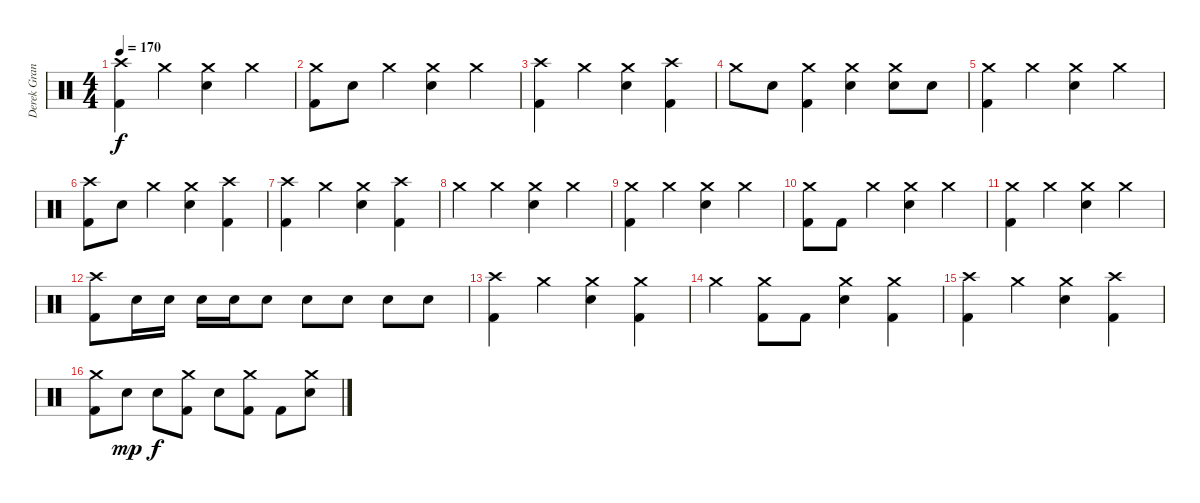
\track ("Derek Grant" "Derek Gran") {instrument percussion}
\staff {score}
\articulation defaults
\ts (4 4)
\tempo 170
\clef neutral
\ks c
("Crash high (hit)" "Kick (hit) 2").4{dy f} "Crash medium (hit)".4 ("Crash medium (hit)" "Snare (hit) 2").4 "Crash medium (hit)".4 |
("Crash medium (hit)" "Kick (hit) 2").8 "Snare (hit) 2".8 "Crash medium (hit)".4 ("Crash medium (hit)" "Snare (hit) 2").4 "Crash medium (hit)".4 |
("Crash high (hit)" "Kick (hit) 2").4 "Crash medium (hit)".4 ("Crash medium (hit)" "Snare (hit) 2").4 ("Crash high (hit)" "Kick (hit) 2").4 |
"Crash medium (hit)".8 "Snare (hit) 2".8 ("Crash medium (hit)" "Kick (hit) 2").4 ("Crash medium (hit)" "Snare (hit) 2").4 ("Crash medium (hit)" "Snare (hit) 2").8 "Snare (hit) 2".8 |
("Crash medium (hit)" "Kick (hit) 2").4 "Crash medium (hit)".4 ("Crash medium (hit)" "Snare (hit) 2").4 "Crash medium (hit)".4 |
("Crash high (hit)" "Kick (hit) 2").8 "Snare (hit) 2".8 "Crash medium (hit)".4 ("Crash medium (hit)" "Snare (hit) 2").4 ("Crash high (hit)" "Kick (hit) 2").4 |
("Crash high (hit)" "Kick (hit) 2").4 "Crash medium (hit)".4 ("Crash medium (hit)" "Snare (hit) 2").4 ("Crash high (hit)" "Kick (hit) 2").4 |
"Crash medium (hit)".4 "Crash medium (hit)".4 ("Crash medium (hit)" "Snare (hit) 2").4 "Crash medium (hit)".4 |
("Crash medium (hit)" "Kick (hit) 2").4 "Crash medium (hit)".4 ("Crash medium (hit)" "Snare (hit) 2").4 "Crash medium (hit)".4 |
("Crash medium (hit)" "Kick (hit) 2").8 "Kick (hit) 2".8 "Crash medium (hit)".4 ("Crash medium (hit)" "Snare (hit) 2").4 "Crash medium (hit)".4 |
("Crash medium (hit)" "Kick (hit) 2").4 "Crash medium (hit)".4 ("Crash medium (hit)" "Snare (hit) 2").4 "Crash medium (hit)".4 |
("Crash high (hit)" "Kick (hit) 2").8 "Snare (hit) 2".16 "Snare (hit) 2".16 "Snare (hit) 2".16 "Snare (hit) 2".16 "Snare (hit) 2".8 "Snare (hit) 2".8 "Snare (hit) 2".8 "Snare (hit) 2".8 "Snare (hit) 2".8 |
("Crash high (hit)" "Kick (hit) 2").4 "Crash medium (hit)".4 ("Crash medium (hit)" "Snare (hit) 2").4 ("Crash medium (hit)" "Kick (hit) 2").4 |
"Crash medium (hit)".4 ("Crash medium (hit)" "Kick (hit) 2").8 "Kick (hit) 2".8 ("Crash medium (hit)" "Snare (hit) 2").4 ("Crash medium (hit)" "Kick (hit) 2").4 |
("Crash high (hit)" "Kick (hit) 2").4 "Crash medium (hit)".4 ("Crash medium (hit)" "Snare (hit) 2").4 ("Crash high (hit)" "Kick (hit) 2").4 |
("Crash medium (hit)" "Kick (hit) 2").8 "Snare (hit) 2".8{dy mp} "Snare (hit) 2".8{dy f} ("Crash medium (hit)" "Kick (hit) 2").8 "Snare (hit) 2".8 ("Crash medium (hit)" "Kick (hit) 2").8 "Kick (hit) 2".8 ("Crash medium (hit)" "Snare (hit) 2").8
